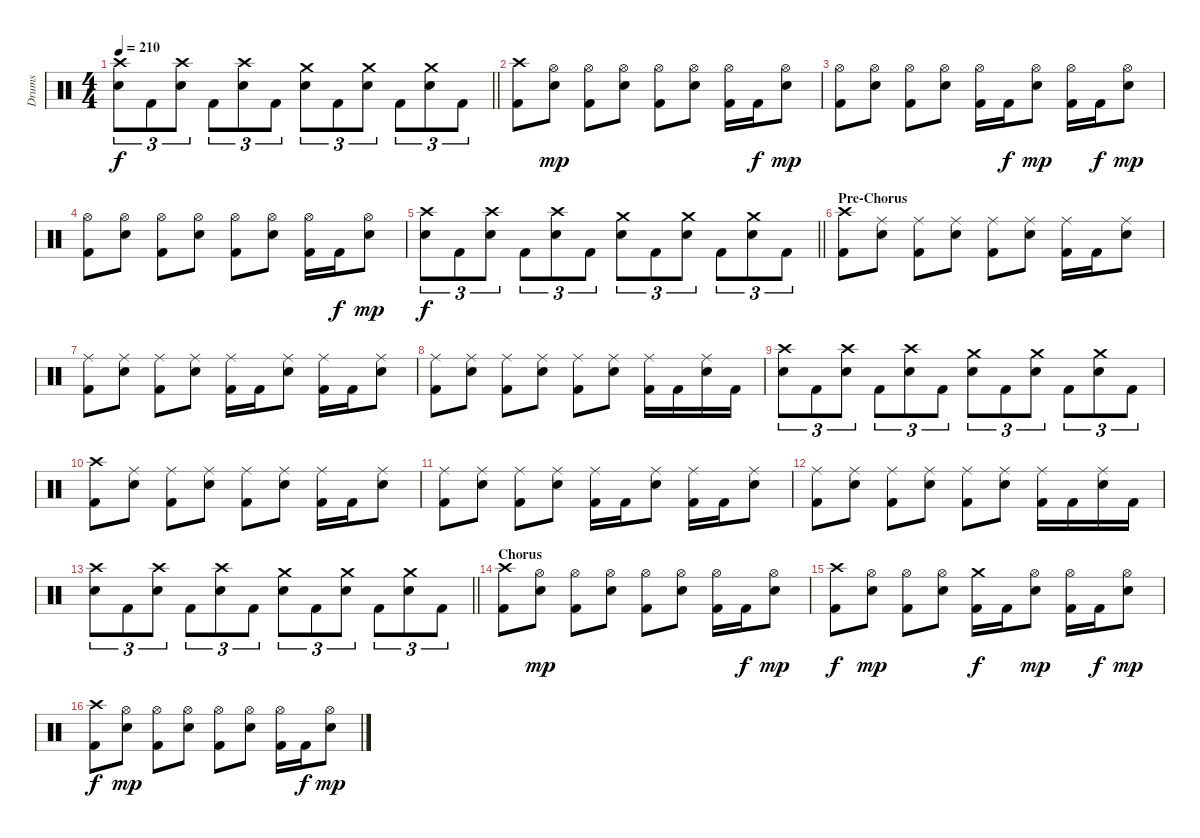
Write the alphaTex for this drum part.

\track ("Drums" "Drums") {instrument percussion}
\staff {score}
\articulation defaults
\ts (4 4)
\tempo 210
\clef neutral
\barLineRight lightlight
\ks c
("Crash high (hit)" "Snare (hit) 2").8{tu (3 2) dy f} "Kick (hit) 2".8{tu (3 2)} ("Crash high (hit)" "Snare (hit) 2").8{tu (3 2)} "Kick (hit) 2".8{tu (3 2)} ("Crash high (hit)" "Snare (hit) 2").8{tu (3 2)} "Kick (hit) 2".8{tu (3 2)} ("Crash medium (hit)" "Snare (hit) 2").8{tu (3 2)} "Kick (hit) 2".8{tu (3 2)} ("Crash medium (hit)" "Snare (hit) 2").8{tu (3 2)} "Kick (hit) 2".8{tu (3 2)} ("Crash medium (hit)" "Snare (hit) 2").8{tu (3 2)} "Kick (hit) 2".8{tu (3 2)} |
("Crash high (hit)" "Kick (hit) 2").8 ("Hi-Hat (open)" "Snare (hit) 2").8{dy mp} ("Hi-Hat (open)" "Kick (hit) 2").8 ("Hi-Hat (open)" "Snare (hit) 2").8 ("Hi-Hat (open)" "Kick (hit) 2").8 ("Hi-Hat (open)" "Snare (hit) 2").8 ("Hi-Hat (open)" "Kick (hit) 2").16 "Kick (hit) 2".16{dy f} ("Hi-Hat (open)" "Snare (hit) 2").8{dy mp} |
("Hi-Hat (open)" "Kick (hit) 2").8 ("Hi-Hat (open)" "Snare (hit) 2").8 ("Hi-Hat (open)" "Kick (hit) 2").8 ("Hi-Hat (open)" "Snare (hit) 2").8 ("Hi-Hat (open)" "Kick (hit) 2").16 "Kick (hit) 2".16{dy f} ("Hi-Hat (open)" "Snare (hit) 2").8{dy mp} ("Hi-Hat (open)" "Kick (hit) 2").16 "Kick (hit) 2".16{dy f} ("Hi-Hat (open)" "Snare (hit) 2").8{dy mp} |
("Hi-Hat (open)" "Kick (hit) 2").8 ("Hi-Hat (open)" "Snare (hit) 2").8 ("Hi-Hat (open)" "Kick (hit) 2").8 ("Hi-Hat (open)" "Snare (hit) 2").8 ("Hi-Hat (open)" "Kick (hit) 2").8 ("Hi-Hat (open)" "Snare (hit) 2").8 ("Hi-Hat (open)" "Kick (hit) 2").16 "Kick (hit) 2".16{dy f} ("Hi-Hat (open)" "Snare (hit) 2").8{dy mp} |
\barLineRight lightlight
("Crash high (hit)" "Snare (hit) 2").8{tu (3 2) dy f} "Kick (hit) 2".8{tu (3 2)} ("Crash high (hit)" "Snare (hit) 2").8{tu (3 2)} "Kick (hit) 2".8{tu (3 2)} ("Crash high (hit)" "Snare (hit) 2").8{tu (3 2)} "Kick (hit) 2".8{tu (3 2)} ("Crash medium (hit)" "Snare (hit) 2").8{tu (3 2)} "Kick (hit) 2".8{tu (3 2)} ("Crash medium (hit)" "Snare (hit) 2").8{tu (3 2)} "Kick (hit) 2".8{tu (3 2)} ("Crash medium (hit)" "Snare (hit) 2").8{tu (3 2)} "Kick (hit) 2".8{tu (3 2)} |
\section ("" "Pre-Chorus")
("Crash high (hit)" "Kick (hit) 2").8 ("Ride (middle)" "Snare (hit) 2").8 ("Ride (middle)" "Kick (hit) 2").8 ("Ride (middle)" "Snare (hit) 2").8 ("Ride (middle)" "Kick (hit) 2").8 ("Ride (middle)" "Snare (hit) 2").8 ("Ride (middle)" "Kick (hit) 2").16 "Kick (hit) 2".16 ("Ride (middle)" "Snare (hit) 2").8 |
("Ride (middle)" "Kick (hit) 2").8 ("Ride (middle)" "Snare (hit) 2").8 ("Ride (middle)" "Kick (hit) 2").8 ("Ride (middle)" "Snare (hit) 2").8 ("Ride (middle)" "Kick (hit) 2").16 "Kick (hit) 2".16 ("Ride (middle)" "Snare (hit) 2").8 ("Ride (middle)" "Kick (hit) 2").16 "Kick (hit) 2".16 ("Ride (middle)" "Snare (hit) 2").8 |
("Ride (middle)" "Kick (hit) 2").8 ("Ride (middle)" "Snare (hit) 2").8 ("Ride (middle)" "Kick (hit) 2").8 ("Ride (middle)" "Snare (hit) 2").8 ("Ride (middle)" "Kick (hit) 2").8 ("Ride (middle)" "Snare (hit) 2").8 ("Ride (middle)" "Kick (hit) 2").16 "Kick (hit) 2".16 ("Ride (middle)" "Snare (hit) 2").16 "Kick (hit) 2".16 |
("Crash high (hit)" "Snare (hit) 2").8{tu (3 2)} "Kick (hit) 2".8{tu (3 2)} ("Crash high (hit)" "Snare (hit) 2").8{tu (3 2)} "Kick (hit) 2".8{tu (3 2)} ("Crash high (hit)" "Snare (hit) 2").8{tu (3 2)} "Kick (hit) 2".8{tu (3 2)} ("Crash medium (hit)" "Snare (hit) 2").8{tu (3 2)} "Kick (hit) 2".8{tu (3 2)} ("Crash medium (hit)" "Snare (hit) 2").8{tu (3 2)} "Kick (hit) 2".8{tu (3 2)} ("Crash medium (hit)" "Snare (hit) 2").8{tu (3 2)} "Kick (hit) 2".8{tu (3 2)} |
("Crash high (hit)" "Kick (hit) 2").8 ("Ride (middle)" "Snare (hit) 2").8 ("Ride (middle)" "Kick (hit) 2").8 ("Ride (middle)" "Snare (hit) 2").8 ("Ride (middle)" "Kick (hit) 2").8 ("Ride (middle)" "Snare (hit) 2").8 ("Ride (middle)" "Kick (hit) 2").16 "Kick (hit) 2".16 ("Ride (middle)" "Snare (hit) 2").8 |
("Ride (middle)" "Kick (hit) 2").8 ("Ride (middle)" "Snare (hit) 2").8 ("Ride (middle)" "Kick (hit) 2").8 ("Ride (middle)" "Snare (hit) 2").8 ("Ride (middle)" "Kick (hit) 2").16 "Kick (hit) 2".16 ("Ride (middle)" "Snare (hit) 2").8 ("Ride (middle)" "Kick (hit) 2").16 "Kick (hit) 2".16 ("Ride (middle)" "Snare (hit) 2").8 |
("Ride (middle)" "Kick (hit) 2").8 ("Ride (middle)" "Snare (hit) 2").8 ("Ride (middle)" "Kick (hit) 2").8 ("Ride (middle)" "Snare (hit) 2").8 ("Ride (middle)" "Kick (hit) 2").8 ("Ride (middle)" "Snare (hit) 2").8 ("Ride (middle)" "Kick (hit) 2").16 "Kick (hit) 2".16 ("Ride (middle)" "Snare (hit) 2").16 "Kick (hit) 2".16 |
\barLineRight lightlight
("Crash high (hit)" "Snare (hit) 2").8{tu (3 2)} "Kick (hit) 2".8{tu (3 2)} ("Crash high (hit)" "Snare (hit) 2").8{tu (3 2)} "Kick (hit) 2".8{tu (3 2)} ("Crash high (hit)" "Snare (hit) 2").8{tu (3 2)} "Kick (hit) 2".8{tu (3 2)} ("Crash medium (hit)" "Snare (hit) 2").8{tu (3 2)} "Kick (hit) 2".8{tu (3 2)} ("Crash medium (hit)" "Snare (hit) 2").8{tu (3 2)} "Kick (hit) 2".8{tu (3 2)} ("Crash medium (hit)" "Snare (hit) 2").8{tu (3 2)} "Kick (hit) 2".8{tu (3 2)} |
\section ("" "Chorus")
("Crash high (hit)" "Kick (hit) 2").8 ("Hi-Hat (open)" "Snare (hit) 2").8{dy mp} ("Hi-Hat (open)" "Kick (hit) 2").8 ("Hi-Hat (open)" "Snare (hit) 2").8 ("Hi-Hat (open)" "Kick (hit) 2").8 ("Hi-Hat (open)" "Snare (hit) 2").8 ("Hi-Hat (open)" "Kick (hit) 2").16 "Kick (hit) 2".16{dy f} ("Hi-Hat (open)" "Snare (hit) 2").8{dy mp} |
("Crash high (hit)" "Kick (hit) 2").8{dy f} ("Hi-Hat (open)" "Snare (hit) 2").8{dy mp} ("Hi-Hat (open)" "Kick (hit) 2").8 ("Hi-Hat (open)" "Snare (hit) 2").8 ("Crash medium (hit)" "Kick (hit) 2").16{dy f} "Kick (hit) 2".16 ("Hi-Hat (open)" "Snare (hit) 2").8{dy mp} ("Hi-Hat (open)" "Kick (hit) 2").16 "Kick (hit) 2".16{dy f} ("Hi-Hat (open)" "Snare (hit) 2").8{dy mp} |
("Crash high (hit)" "Kick (hit) 2").8{dy f} ("Hi-Hat (open)" "Snare (hit) 2").8{dy mp} ("Hi-Hat (open)" "Kick (hit) 2").8 ("Hi-Hat (open)" "Snare (hit) 2").8 ("Hi-Hat (open)" "Kick (hit) 2").8 ("Hi-Hat (open)" "Snare (hit) 2").8 ("Hi-Hat (open)" "Kick (hit) 2").16 "Kick (hit) 2".16{dy f} ("Hi-Hat (open)" "Snare (hit) 2").8{dy mp}
